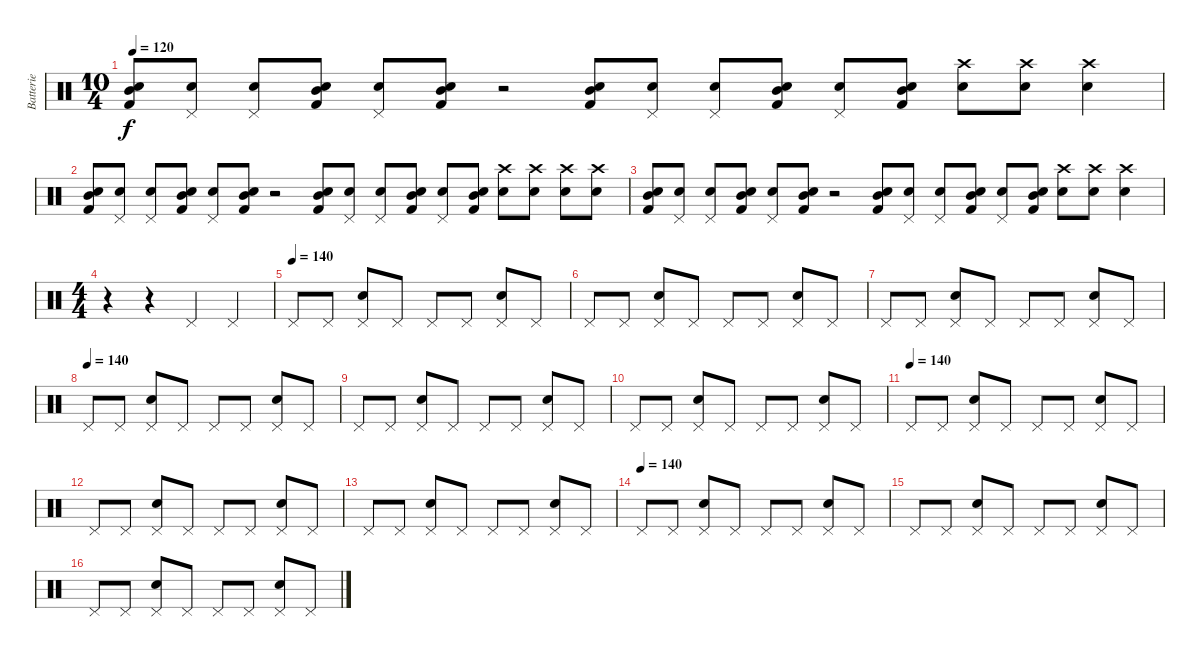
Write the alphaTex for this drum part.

\track ("Batterie" "Batterie") {instrument percussion}
\staff {score}
\articulation defaults
\ts (10 4)
\tempo 120
\clef neutral
\ks c
("Snare (hit) 2" "Mid Tom (hit)" "Kick (hit) 2").8{dy f} ("Pedal Hi-Hat (hit)" "Snare (hit) 2").8 ("Pedal Hi-Hat (hit)" "Snare (hit) 2").8 ("Snare (hit) 2" "Mid Tom (hit)" "Kick (hit) 2").8 ("Pedal Hi-Hat (hit)" "Snare (hit) 2").8 ("Snare (hit) 2" "Mid Tom (hit)" "Kick (hit) 2").8 r.2 ("Snare (hit) 2" "Mid Tom (hit)" "Kick (hit) 2").8 ("Pedal Hi-Hat (hit)" "Snare (hit) 2").8 ("Pedal Hi-Hat (hit)" "Snare (hit) 2").8 ("Snare (hit) 2" "Mid Tom (hit)" "Kick (hit) 2").8 ("Pedal Hi-Hat (hit)" "Snare (hit) 2").8 ("Snare (hit) 2" "Mid Tom (hit)" "Kick (hit) 2").8 ("Crash high (hit)" "Snare (hit) 2").8 ("Crash high (hit)" "Snare (hit) 2").8 ("Crash high (hit)" "Snare (hit) 2").4 |
("Snare (hit) 2" "Mid Tom (hit)" "Kick (hit) 2").8 ("Pedal Hi-Hat (hit)" "Snare (hit) 2").8 ("Pedal Hi-Hat (hit)" "Snare (hit) 2").8 ("Snare (hit) 2" "Mid Tom (hit)" "Kick (hit) 2").8 ("Pedal Hi-Hat (hit)" "Snare (hit) 2").8 ("Snare (hit) 2" "Mid Tom (hit)" "Kick (hit) 2").8 r.2 ("Snare (hit) 2" "Mid Tom (hit)" "Kick (hit) 2").8 ("Pedal Hi-Hat (hit)" "Snare (hit) 2").8 ("Pedal Hi-Hat (hit)" "Snare (hit) 2").8 ("Snare (hit) 2" "Mid Tom (hit)" "Kick (hit) 2").8 ("Pedal Hi-Hat (hit)" "Snare (hit) 2").8 ("Snare (hit) 2" "Mid Tom (hit)" "Kick (hit) 2").8 ("Crash high (hit)" "Snare (hit) 2").8 ("Crash high (hit)" "Snare (hit) 2").8 ("Crash high (hit)" "Snare (hit) 2").8 ("Crash high (hit)" "Snare (hit) 2").8 |
("Snare (hit) 2" "Mid Tom (hit)" "Kick (hit) 2").8 ("Pedal Hi-Hat (hit)" "Snare (hit) 2").8 ("Pedal Hi-Hat (hit)" "Snare (hit) 2").8 ("Snare (hit) 2" "Mid Tom (hit)" "Kick (hit) 2").8 ("Pedal Hi-Hat (hit)" "Snare (hit) 2").8 ("Snare (hit) 2" "Mid Tom (hit)" "Kick (hit) 2").8 r.2 ("Snare (hit) 2" "Mid Tom (hit)" "Kick (hit) 2").8 ("Pedal Hi-Hat (hit)" "Snare (hit) 2").8 ("Pedal Hi-Hat (hit)" "Snare (hit) 2").8 ("Snare (hit) 2" "Mid Tom (hit)" "Kick (hit) 2").8 ("Pedal Hi-Hat (hit)" "Snare (hit) 2").8 ("Snare (hit) 2" "Mid Tom (hit)" "Kick (hit) 2").8 ("Crash high (hit)" "Snare (hit) 2").8 ("Crash high (hit)" "Snare (hit) 2").8 ("Crash high (hit)" "Snare (hit) 2").4 |
\ts (4 4)
r.4 r.4 "Pedal Hi-Hat (hit)".4 "Pedal Hi-Hat (hit)".4 |
\tempo (140)
"Pedal Hi-Hat (hit)".8 "Pedal Hi-Hat (hit)".8 ("Snare (hit) 2" "Pedal Hi-Hat (hit)").8 "Pedal Hi-Hat (hit)".8 "Pedal Hi-Hat (hit)".8 "Pedal Hi-Hat (hit)".8 ("Snare (hit) 2" "Pedal Hi-Hat (hit)").8 "Pedal Hi-Hat (hit)".8 |
"Pedal Hi-Hat (hit)".8 "Pedal Hi-Hat (hit)".8 ("Snare (hit) 2" "Pedal Hi-Hat (hit)").8 "Pedal Hi-Hat (hit)".8 "Pedal Hi-Hat (hit)".8 "Pedal Hi-Hat (hit)".8 ("Snare (hit) 2" "Pedal Hi-Hat (hit)").8 "Pedal Hi-Hat (hit)".8 |
"Pedal Hi-Hat (hit)".8 "Pedal Hi-Hat (hit)".8 ("Snare (hit) 2" "Pedal Hi-Hat (hit)").8 "Pedal Hi-Hat (hit)".8 "Pedal Hi-Hat (hit)".8 "Pedal Hi-Hat (hit)".8 ("Snare (hit) 2" "Pedal Hi-Hat (hit)").8 "Pedal Hi-Hat (hit)".8 |
\tempo (140)
"Pedal Hi-Hat (hit)".8 "Pedal Hi-Hat (hit)".8 ("Snare (hit) 2" "Pedal Hi-Hat (hit)").8 "Pedal Hi-Hat (hit)".8 "Pedal Hi-Hat (hit)".8 "Pedal Hi-Hat (hit)".8 ("Snare (hit) 2" "Pedal Hi-Hat (hit)").8 "Pedal Hi-Hat (hit)".8 |
"Pedal Hi-Hat (hit)".8 "Pedal Hi-Hat (hit)".8 ("Snare (hit) 2" "Pedal Hi-Hat (hit)").8 "Pedal Hi-Hat (hit)".8 "Pedal Hi-Hat (hit)".8 "Pedal Hi-Hat (hit)".8 ("Snare (hit) 2" "Pedal Hi-Hat (hit)").8 "Pedal Hi-Hat (hit)".8 |
"Pedal Hi-Hat (hit)".8 "Pedal Hi-Hat (hit)".8 ("Snare (hit) 2" "Pedal Hi-Hat (hit)").8 "Pedal Hi-Hat (hit)".8 "Pedal Hi-Hat (hit)".8 "Pedal Hi-Hat (hit)".8 ("Snare (hit) 2" "Pedal Hi-Hat (hit)").8 "Pedal Hi-Hat (hit)".8 |
\tempo (140)
"Pedal Hi-Hat (hit)".8 "Pedal Hi-Hat (hit)".8 ("Snare (hit) 2" "Pedal Hi-Hat (hit)").8 "Pedal Hi-Hat (hit)".8 "Pedal Hi-Hat (hit)".8 "Pedal Hi-Hat (hit)".8 ("Snare (hit) 2" "Pedal Hi-Hat (hit)").8 "Pedal Hi-Hat (hit)".8 |
"Pedal Hi-Hat (hit)".8 "Pedal Hi-Hat (hit)".8 ("Snare (hit) 2" "Pedal Hi-Hat (hit)").8 "Pedal Hi-Hat (hit)".8 "Pedal Hi-Hat (hit)".8 "Pedal Hi-Hat (hit)".8 ("Snare (hit) 2" "Pedal Hi-Hat (hit)").8 "Pedal Hi-Hat (hit)".8 |
"Pedal Hi-Hat (hit)".8 "Pedal Hi-Hat (hit)".8 ("Snare (hit) 2" "Pedal Hi-Hat (hit)").8 "Pedal Hi-Hat (hit)".8 "Pedal Hi-Hat (hit)".8 "Pedal Hi-Hat (hit)".8 ("Snare (hit) 2" "Pedal Hi-Hat (hit)").8 "Pedal Hi-Hat (hit)".8 |
\tempo (140)
"Pedal Hi-Hat (hit)".8 "Pedal Hi-Hat (hit)".8 ("Snare (hit) 2" "Pedal Hi-Hat (hit)").8 "Pedal Hi-Hat (hit)".8 "Pedal Hi-Hat (hit)".8 "Pedal Hi-Hat (hit)".8 ("Snare (hit) 2" "Pedal Hi-Hat (hit)").8 "Pedal Hi-Hat (hit)".8 |
"Pedal Hi-Hat (hit)".8 "Pedal Hi-Hat (hit)".8 ("Snare (hit) 2" "Pedal Hi-Hat (hit)").8 "Pedal Hi-Hat (hit)".8 "Pedal Hi-Hat (hit)".8 "Pedal Hi-Hat (hit)".8 ("Snare (hit) 2" "Pedal Hi-Hat (hit)").8 "Pedal Hi-Hat (hit)".8 |
"Pedal Hi-Hat (hit)".8 "Pedal Hi-Hat (hit)".8 ("Snare (hit) 2" "Pedal Hi-Hat (hit)").8 "Pedal Hi-Hat (hit)".8 "Pedal Hi-Hat (hit)".8 "Pedal Hi-Hat (hit)".8 ("Snare (hit) 2" "Pedal Hi-Hat (hit)").8 "Pedal Hi-Hat (hit)".8
